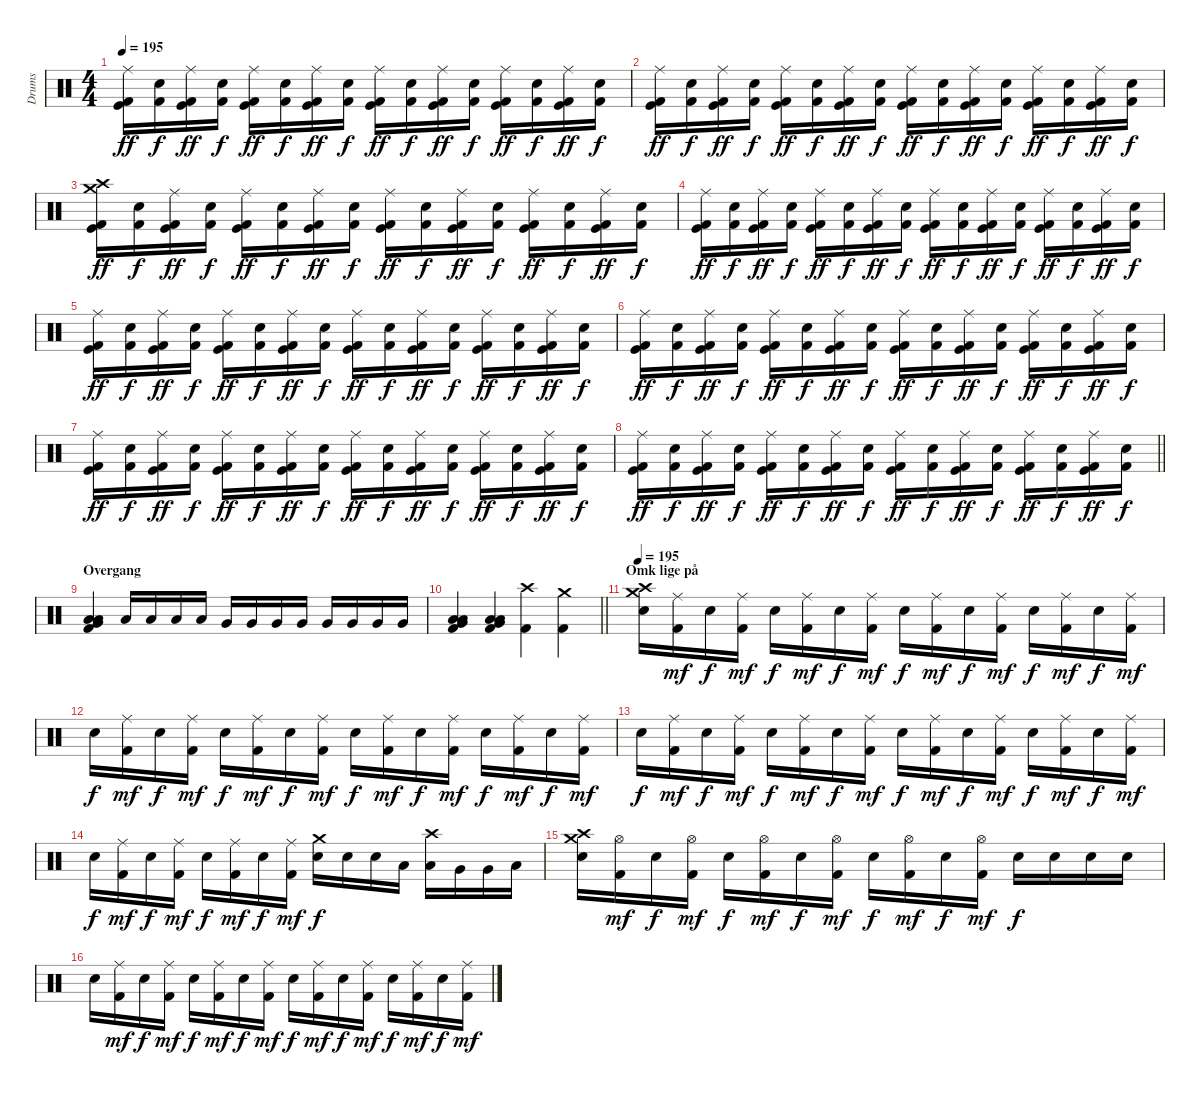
\track ("Drums" "Drums") {instrument percussion}
\staff {score}
\articulation defaults
\ts (4 4)
\tempo 195
\clef neutral
\ks c
("Ride (middle)" "Kick (hit)" "Kick (hit) 2").16{dy ff} ("Electric Snare (hit)" "Kick (hit) 2").16{dy f} ("Ride (middle)" "Kick (hit)" "Kick (hit) 2").16{dy ff} ("Electric Snare (hit)" "Kick (hit) 2").16{dy f} ("Ride (middle)" "Kick (hit)" "Kick (hit) 2").16{dy ff} ("Electric Snare (hit)" "Kick (hit) 2").16{dy f} ("Ride (middle)" "Kick (hit)" "Kick (hit) 2").16{dy ff} ("Electric Snare (hit)" "Kick (hit) 2").16{dy f} ("Ride (middle)" "Kick (hit)" "Kick (hit) 2").16{dy ff} ("Electric Snare (hit)" "Kick (hit) 2").16{dy f} ("Ride (middle)" "Kick (hit)" "Kick (hit) 2").16{dy ff} ("Electric Snare (hit)" "Kick (hit) 2").16{dy f} ("Ride (middle)" "Kick (hit)" "Kick (hit) 2").16{dy ff} ("Electric Snare (hit)" "Kick (hit) 2").16{dy f} ("Ride (middle)" "Kick (hit)" "Kick (hit) 2").16{dy ff} ("Electric Snare (hit)" "Kick (hit) 2").16{dy f} |
("Ride (middle)" "Kick (hit)" "Kick (hit) 2").16{dy ff} ("Electric Snare (hit)" "Kick (hit) 2").16{dy f} ("Ride (middle)" "Kick (hit)" "Kick (hit) 2").16{dy ff} ("Electric Snare (hit)" "Kick (hit) 2").16{dy f} ("Ride (middle)" "Kick (hit)" "Kick (hit) 2").16{dy ff} ("Electric Snare (hit)" "Kick (hit) 2").16{dy f} ("Ride (middle)" "Kick (hit)" "Kick (hit) 2").16{dy ff} ("Electric Snare (hit)" "Kick (hit) 2").16{dy f} ("Ride (middle)" "Kick (hit)" "Kick (hit) 2").16{dy ff} ("Electric Snare (hit)" "Kick (hit) 2").16{dy f} ("Ride (middle)" "Kick (hit)" "Kick (hit) 2").16{dy ff} ("Electric Snare (hit)" "Kick (hit) 2").16{dy f} ("Ride (middle)" "Kick (hit)" "Kick (hit) 2").16{dy ff} ("Electric Snare (hit)" "Kick (hit) 2").16{dy f} ("Ride (middle)" "Kick (hit)" "Kick (hit) 2").16{dy ff} ("Electric Snare (hit)" "Kick (hit) 2").16{dy f} |
("Crash medium (hit)" "Crash high (hit)" "Kick (hit)" "Kick (hit) 2").16{dy ff} ("Electric Snare (hit)" "Kick (hit) 2").16{dy f} ("Ride (middle)" "Kick (hit)" "Kick (hit) 2").16{dy ff} ("Electric Snare (hit)" "Kick (hit) 2").16{dy f} ("Ride (middle)" "Kick (hit)" "Kick (hit) 2").16{dy ff} ("Electric Snare (hit)" "Kick (hit) 2").16{dy f} ("Ride (middle)" "Kick (hit)" "Kick (hit) 2").16{dy ff} ("Electric Snare (hit)" "Kick (hit) 2").16{dy f} ("Ride (middle)" "Kick (hit)" "Kick (hit) 2").16{dy ff} ("Electric Snare (hit)" "Kick (hit) 2").16{dy f} ("Ride (middle)" "Kick (hit)" "Kick (hit) 2").16{dy ff} ("Electric Snare (hit)" "Kick (hit) 2").16{dy f} ("Ride (middle)" "Kick (hit)" "Kick (hit) 2").16{dy ff} ("Electric Snare (hit)" "Kick (hit) 2").16{dy f} ("Ride (middle)" "Kick (hit)" "Kick (hit) 2").16{dy ff} ("Electric Snare (hit)" "Kick (hit) 2").16{dy f} |
("Ride (middle)" "Kick (hit)" "Kick (hit) 2").16{dy ff} ("Electric Snare (hit)" "Kick (hit) 2").16{dy f} ("Ride (middle)" "Kick (hit)" "Kick (hit) 2").16{dy ff} ("Electric Snare (hit)" "Kick (hit) 2").16{dy f} ("Ride (middle)" "Kick (hit)" "Kick (hit) 2").16{dy ff} ("Electric Snare (hit)" "Kick (hit) 2").16{dy f} ("Ride (middle)" "Kick (hit)" "Kick (hit) 2").16{dy ff} ("Electric Snare (hit)" "Kick (hit) 2").16{dy f} ("Ride (middle)" "Kick (hit)" "Kick (hit) 2").16{dy ff} ("Electric Snare (hit)" "Kick (hit) 2").16{dy f} ("Ride (middle)" "Kick (hit)" "Kick (hit) 2").16{dy ff} ("Electric Snare (hit)" "Kick (hit) 2").16{dy f} ("Ride (middle)" "Kick (hit)" "Kick (hit) 2").16{dy ff} ("Electric Snare (hit)" "Kick (hit) 2").16{dy f} ("Ride (middle)" "Kick (hit)" "Kick (hit) 2").16{dy ff} ("Electric Snare (hit)" "Kick (hit) 2").16{dy f} |
("Ride (middle)" "Kick (hit)" "Kick (hit) 2").16{dy ff} ("Electric Snare (hit)" "Kick (hit) 2").16{dy f} ("Ride (middle)" "Kick (hit)" "Kick (hit) 2").16{dy ff} ("Electric Snare (hit)" "Kick (hit) 2").16{dy f} ("Ride (middle)" "Kick (hit)" "Kick (hit) 2").16{dy ff} ("Electric Snare (hit)" "Kick (hit) 2").16{dy f} ("Ride (middle)" "Kick (hit)" "Kick (hit) 2").16{dy ff} ("Electric Snare (hit)" "Kick (hit) 2").16{dy f} ("Ride (middle)" "Kick (hit)" "Kick (hit) 2").16{dy ff} ("Electric Snare (hit)" "Kick (hit) 2").16{dy f} ("Ride (middle)" "Kick (hit)" "Kick (hit) 2").16{dy ff} ("Electric Snare (hit)" "Kick (hit) 2").16{dy f} ("Ride (middle)" "Kick (hit)" "Kick (hit) 2").16{dy ff} ("Electric Snare (hit)" "Kick (hit) 2").16{dy f} ("Ride (middle)" "Kick (hit)" "Kick (hit) 2").16{dy ff} ("Electric Snare (hit)" "Kick (hit) 2").16{dy f} |
("Ride (middle)" "Kick (hit)" "Kick (hit) 2").16{dy ff} ("Electric Snare (hit)" "Kick (hit) 2").16{dy f} ("Ride (middle)" "Kick (hit)" "Kick (hit) 2").16{dy ff} ("Electric Snare (hit)" "Kick (hit) 2").16{dy f} ("Ride (middle)" "Kick (hit)" "Kick (hit) 2").16{dy ff} ("Electric Snare (hit)" "Kick (hit) 2").16{dy f} ("Ride (middle)" "Kick (hit)" "Kick (hit) 2").16{dy ff} ("Electric Snare (hit)" "Kick (hit) 2").16{dy f} ("Ride (middle)" "Kick (hit)" "Kick (hit) 2").16{dy ff} ("Electric Snare (hit)" "Kick (hit) 2").16{dy f} ("Ride (middle)" "Kick (hit)" "Kick (hit) 2").16{dy ff} ("Electric Snare (hit)" "Kick (hit) 2").16{dy f} ("Ride (middle)" "Kick (hit)" "Kick (hit) 2").16{dy ff} ("Electric Snare (hit)" "Kick (hit) 2").16{dy f} ("Ride (middle)" "Kick (hit)" "Kick (hit) 2").16{dy ff} ("Electric Snare (hit)" "Kick (hit) 2").16{dy f} |
("Ride (middle)" "Kick (hit)" "Kick (hit) 2").16{dy ff} ("Electric Snare (hit)" "Kick (hit) 2").16{dy f} ("Ride (middle)" "Kick (hit)" "Kick (hit) 2").16{dy ff} ("Electric Snare (hit)" "Kick (hit) 2").16{dy f} ("Ride (middle)" "Kick (hit)" "Kick (hit) 2").16{dy ff} ("Electric Snare (hit)" "Kick (hit) 2").16{dy f} ("Ride (middle)" "Kick (hit)" "Kick (hit) 2").16{dy ff} ("Electric Snare (hit)" "Kick (hit) 2").16{dy f} ("Ride (middle)" "Kick (hit)" "Kick (hit) 2").16{dy ff} ("Electric Snare (hit)" "Kick (hit) 2").16{dy f} ("Ride (middle)" "Kick (hit)" "Kick (hit) 2").16{dy ff} ("Electric Snare (hit)" "Kick (hit) 2").16{dy f} ("Ride (middle)" "Kick (hit)" "Kick (hit) 2").16{dy ff} ("Electric Snare (hit)" "Kick (hit) 2").16{dy f} ("Ride (middle)" "Kick (hit)" "Kick (hit) 2").16{dy ff} ("Electric Snare (hit)" "Kick (hit) 2").16{dy f} |
\barLineRight lightlight
("Ride (middle)" "Kick (hit)" "Kick (hit) 2").16{dy ff} ("Electric Snare (hit)" "Kick (hit) 2").16{dy f} ("Ride (middle)" "Kick (hit)" "Kick (hit) 2").16{dy ff} ("Electric Snare (hit)" "Kick (hit) 2").16{dy f} ("Ride (middle)" "Kick (hit)" "Kick (hit) 2").16{dy ff} ("Electric Snare (hit)" "Kick (hit) 2").16{dy f} ("Ride (middle)" "Kick (hit)" "Kick (hit) 2").16{dy ff} ("Electric Snare (hit)" "Kick (hit) 2").16{dy f} ("Ride (middle)" "Kick (hit)" "Kick (hit) 2").16{dy ff} ("Electric Snare (hit)" "Kick (hit) 2").16{dy f} ("Ride (middle)" "Kick (hit)" "Kick (hit) 2").16{dy ff} ("Electric Snare (hit)" "Kick (hit) 2").16{dy f} ("Ride (middle)" "Kick (hit)" "Kick (hit) 2").16{dy ff} ("Electric Snare (hit)" "Kick (hit) 2").16{dy f} ("Ride (middle)" "Kick (hit)" "Kick (hit) 2").16{dy ff} ("Electric Snare (hit)" "Kick (hit) 2").16{dy f} |
\section ("" "Overgang")
("Low Floor Tom (hit)" "Low Tom (hit)" "Very Low Tom (hit)" "Kick (hit) 2").4 "Low Tom (hit)".16 "Low Tom (hit)".16 "Low Tom (hit)".16 "Low Tom (hit)".16 "Very Low Tom (hit)".16 "Very Low Tom (hit)".16 "Very Low Tom (hit)".16 "Very Low Tom (hit)".16 "Very Low Tom (hit)".16 "Very Low Tom (hit)".16 "Very Low Tom (hit)".16 "Very Low Tom (hit)".16 |
\barLineRight lightlight
("Low Floor Tom (hit)" "Low Tom (hit)" "Very Low Tom (hit)" "Kick (hit) 2").4 ("Low Floor Tom (hit)" "Low Tom (hit)" "Very Low Tom (hit)" "Kick (hit) 2").4 ("Crash high (hit)" "Kick (hit) 2").4 ("Crash medium (hit)" "Kick (hit) 2").4 |
\section ("" "Omk lige på")
\tempo 195
("Crash medium (hit)" "Crash high (hit)" "Snare (hit) 2").16 ("Ride (middle)" "Kick (hit) 2").16{dy mf} "Snare (hit) 2".16{dy f} ("Ride (middle)" "Kick (hit) 2").16{dy mf} "Snare (hit) 2".16{dy f} ("Ride (middle)" "Kick (hit) 2").16{dy mf} "Snare (hit) 2".16{dy f} ("Ride (middle)" "Kick (hit) 2").16{dy mf} "Snare (hit) 2".16{dy f} ("Ride (middle)" "Kick (hit) 2").16{dy mf} "Snare (hit) 2".16{dy f} ("Ride (middle)" "Kick (hit) 2").16{dy mf} "Snare (hit) 2".16{dy f} ("Ride (middle)" "Kick (hit) 2").16{dy mf} "Snare (hit) 2".16{dy f} ("Ride (middle)" "Kick (hit) 2").16{dy mf} |
"Snare (hit) 2".16{dy f} ("Ride (middle)" "Kick (hit) 2").16{dy mf} "Snare (hit) 2".16{dy f} ("Ride (middle)" "Kick (hit) 2").16{dy mf} "Snare (hit) 2".16{dy f} ("Ride (middle)" "Kick (hit) 2").16{dy mf} "Snare (hit) 2".16{dy f} ("Ride (middle)" "Kick (hit) 2").16{dy mf} "Snare (hit) 2".16{dy f} ("Ride (middle)" "Kick (hit) 2").16{dy mf} "Snare (hit) 2".16{dy f} ("Ride (middle)" "Kick (hit) 2").16{dy mf} "Snare (hit) 2".16{dy f} ("Ride (middle)" "Kick (hit) 2").16{dy mf} "Snare (hit) 2".16{dy f} ("Ride (middle)" "Kick (hit) 2").16{dy mf} |
"Snare (hit) 2".16{dy f} ("Ride (middle)" "Kick (hit) 2").16{dy mf} "Snare (hit) 2".16{dy f} ("Ride (middle)" "Kick (hit) 2").16{dy mf} "Snare (hit) 2".16{dy f} ("Ride (middle)" "Kick (hit) 2").16{dy mf} "Snare (hit) 2".16{dy f} ("Ride (middle)" "Kick (hit) 2").16{dy mf} "Snare (hit) 2".16{dy f} ("Ride (middle)" "Kick (hit) 2").16{dy mf} "Snare (hit) 2".16{dy f} ("Ride (middle)" "Kick (hit) 2").16{dy mf} "Snare (hit) 2".16{dy f} ("Ride (middle)" "Kick (hit) 2").16{dy mf} "Snare (hit) 2".16{dy f} ("Ride (middle)" "Kick (hit) 2").16{dy mf} |
"Snare (hit) 2".16{dy f} ("Ride (middle)" "Kick (hit) 2").16{dy mf} "Snare (hit) 2".16{dy f} ("Ride (middle)" "Kick (hit) 2").16{dy mf} "Snare (hit) 2".16{dy f} ("Ride (middle)" "Kick (hit) 2").16{dy mf} "Snare (hit) 2".16{dy f} ("Ride (middle)" "Kick (hit) 2").16{dy mf} ("Crash medium (hit)" "Snare (hit) 2").16{dy f} "Snare (hit) 2".16 "Snare (hit) 2".16 "Low Tom (hit)".16 ("Crash high (hit)" "Low Tom (hit)").16 "Very Low Tom (hit)".16 "Very Low Tom (hit)".16 "Low Floor Tom (hit)".16 |
("Crash medium (hit)" "Crash high (hit)" "Snare (hit) 2").16 ("Hi-Hat (open)" "Kick (hit) 2").16{dy mf} "Snare (hit) 2".16{dy f} ("Hi-Hat (open)" "Kick (hit) 2").16{dy mf} "Snare (hit) 2".16{dy f} ("Hi-Hat (open)" "Kick (hit) 2").16{dy mf} "Snare (hit) 2".16{dy f} ("Hi-Hat (open)" "Kick (hit) 2").16{dy mf} "Snare (hit) 2".16{dy f} ("Hi-Hat (open)" "Kick (hit) 2").16{dy mf} "Snare (hit) 2".16{dy f} ("Hi-Hat (open)" "Kick (hit) 2").16{dy mf} "Snare (hit) 2".16{dy f} "Snare (hit) 2".16 "Snare (hit) 2".16 "Snare (hit) 2".16 |
"Snare (hit) 2".16 ("Ride (middle)" "Kick (hit) 2").16{dy mf} "Snare (hit) 2".16{dy f} ("Ride (middle)" "Kick (hit) 2").16{dy mf} "Snare (hit) 2".16{dy f} ("Ride (middle)" "Kick (hit) 2").16{dy mf} "Snare (hit) 2".16{dy f} ("Ride (middle)" "Kick (hit) 2").16{dy mf} "Snare (hit) 2".16{dy f} ("Ride (middle)" "Kick (hit) 2").16{dy mf} "Snare (hit) 2".16{dy f} ("Ride (middle)" "Kick (hit) 2").16{dy mf} "Snare (hit) 2".16{dy f} ("Ride (middle)" "Kick (hit) 2").16{dy mf} "Snare (hit) 2".16{dy f} ("Ride (middle)" "Kick (hit) 2").16{dy mf}
